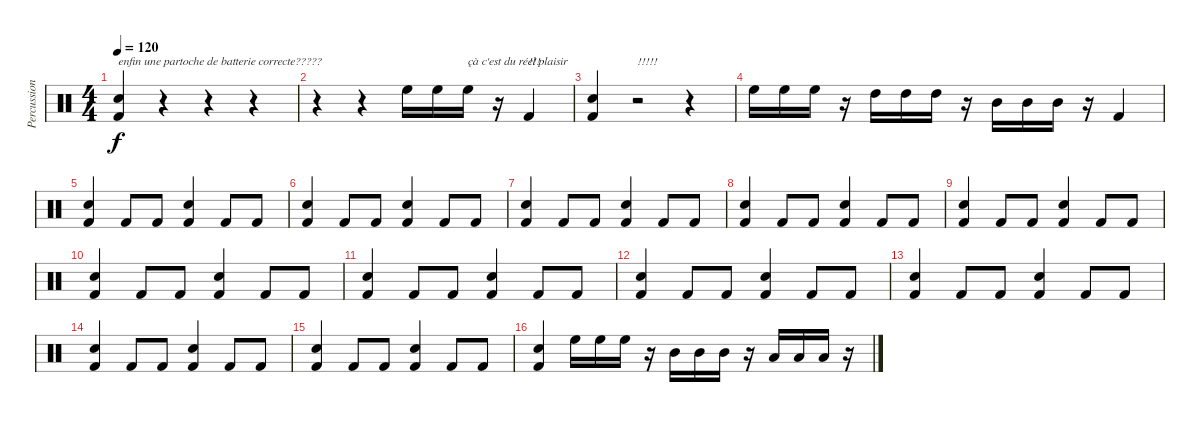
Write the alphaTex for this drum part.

\track ("Percussions" "Percussion") {instrument percussion}
\staff {score}
\articulation defaults
\ts (4 4)
\tempo 120
\clef neutral
\ks c
("Snare (hit) 2" "Kick (hit) 2").4{txt "enfin une partoche de batterie correcte?????" dy f} r.4 r.4 r.4 |
r.4 r.4 "High Floor Tom (hit)".16 "High Floor Tom (hit)".16 "High Floor Tom (hit)".16{txt "çà c'est du réel plaisir"} r.16 "Kick (hit) 2".4{txt "!!!"} |
("Snare (hit) 2" "Kick (hit) 2").4 r.2{txt "!!!!!"} r.4 |
"High Floor Tom (hit)".16 "High Floor Tom (hit)".16 "High Floor Tom (hit)".16 r.16 "High Tom (hit)".16 "High Tom (hit)".16 "High Tom (hit)".16 r.16 "Mid Tom (hit)".16 "Mid Tom (hit)".16 "Mid Tom (hit)".16 r.16 "Kick (hit) 2".4 |
("Snare (hit) 2" "Kick (hit) 2").4 "Kick (hit) 2".8 "Kick (hit) 2".8 ("Snare (hit) 2" "Kick (hit) 2").4 "Kick (hit) 2".8 "Kick (hit) 2".8 |
("Snare (hit) 2" "Kick (hit) 2").4 "Kick (hit) 2".8 "Kick (hit) 2".8 ("Snare (hit) 2" "Kick (hit) 2").4 "Kick (hit) 2".8 "Kick (hit) 2".8 |
("Snare (hit) 2" "Kick (hit) 2").4 "Kick (hit) 2".8 "Kick (hit) 2".8 ("Snare (hit) 2" "Kick (hit) 2").4 "Kick (hit) 2".8 "Kick (hit) 2".8 |
("Snare (hit) 2" "Kick (hit) 2").4 "Kick (hit) 2".8 "Kick (hit) 2".8 ("Snare (hit) 2" "Kick (hit) 2").4 "Kick (hit) 2".8 "Kick (hit) 2".8 |
("Snare (hit) 2" "Kick (hit) 2").4 "Kick (hit) 2".8 "Kick (hit) 2".8 ("Snare (hit) 2" "Kick (hit) 2").4 "Kick (hit) 2".8 "Kick (hit) 2".8 |
("Snare (hit) 2" "Kick (hit) 2").4 "Kick (hit) 2".8 "Kick (hit) 2".8 ("Snare (hit) 2" "Kick (hit) 2").4 "Kick (hit) 2".8 "Kick (hit) 2".8 |
("Snare (hit) 2" "Kick (hit) 2").4 "Kick (hit) 2".8 "Kick (hit) 2".8 ("Snare (hit) 2" "Kick (hit) 2").4 "Kick (hit) 2".8 "Kick (hit) 2".8 |
("Snare (hit) 2" "Kick (hit) 2").4 "Kick (hit) 2".8 "Kick (hit) 2".8 ("Snare (hit) 2" "Kick (hit) 2").4 "Kick (hit) 2".8 "Kick (hit) 2".8 |
("Snare (hit) 2" "Kick (hit) 2").4 "Kick (hit) 2".8 "Kick (hit) 2".8 ("Snare (hit) 2" "Kick (hit) 2").4 "Kick (hit) 2".8 "Kick (hit) 2".8 |
("Snare (hit) 2" "Kick (hit) 2").4 "Kick (hit) 2".8 "Kick (hit) 2".8 ("Snare (hit) 2" "Kick (hit) 2").4 "Kick (hit) 2".8 "Kick (hit) 2".8 |
("Snare (hit) 2" "Kick (hit) 2").4 "Kick (hit) 2".8 "Kick (hit) 2".8 ("Snare (hit) 2" "Kick (hit) 2").4 "Kick (hit) 2".8 "Kick (hit) 2".8 |
("Snare (hit) 2" "Kick (hit) 2").4 "High Floor Tom (hit)".16 "High Floor Tom (hit)".16 "High Floor Tom (hit)".16 r.16 "Mid Tom (hit)".16 "Mid Tom (hit)".16 "Mid Tom (hit)".16 r.16 "Low Tom (hit)".16 "Low Tom (hit)".16 "Low Tom (hit)".16 r.16
